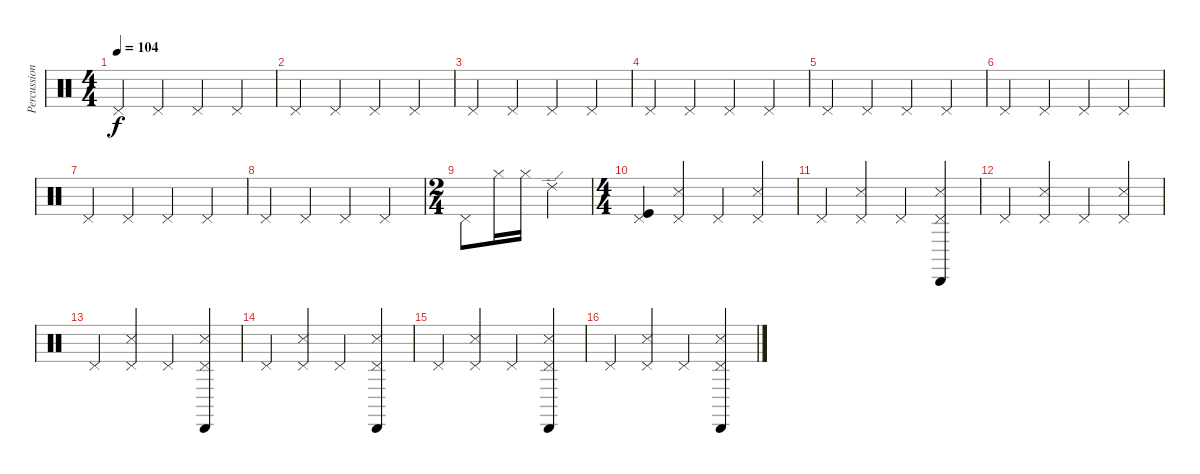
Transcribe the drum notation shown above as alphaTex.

\track ("Percussion" "Percussion") {instrument percussion}
\staff {score}
\articulation defaults
\ts (4 4)
\tempo 104
\clef neutral
\ks c "Pedal Hi-Hat (hit)".4{dy f} "Pedal Hi-Hat (hit)".4 "Pedal Hi-Hat (hit)".4 "Pedal Hi-Hat (hit)".4
|
"Pedal Hi-Hat (hit)".4 "Pedal Hi-Hat (hit)".4 "Pedal Hi-Hat (hit)".4 "Pedal Hi-Hat (hit)".4 |
"Pedal Hi-Hat (hit)".4 "Pedal Hi-Hat (hit)".4 "Pedal Hi-Hat (hit)".4 "Pedal Hi-Hat (hit)".4 |
"Pedal Hi-Hat (hit)".4 "Pedal Hi-Hat (hit)".4 "Pedal Hi-Hat (hit)".4 "Pedal Hi-Hat (hit)".4 |
"Pedal Hi-Hat (hit)".4 "Pedal Hi-Hat (hit)".4 "Pedal Hi-Hat (hit)".4 "Pedal Hi-Hat (hit)".4 |
"Pedal Hi-Hat (hit)".4 "Pedal Hi-Hat (hit)".4 "Pedal Hi-Hat (hit)".4 "Pedal Hi-Hat (hit)".4 |
"Pedal Hi-Hat (hit)".4 "Pedal Hi-Hat (hit)".4 "Pedal Hi-Hat (hit)".4 "Pedal Hi-Hat (hit)".4 |
"Pedal Hi-Hat (hit)".4 "Pedal Hi-Hat (hit)".4 "Pedal Hi-Hat (hit)".4 "Pedal Hi-Hat (hit)".4 |
\ts (2 4)
"Pedal Hi-Hat (hit)".8 "Hi-Hat (closed)".16 "Hi-Hat (closed)".16 "Ride (edge) 2".4 |
\ts (4 4)
("Pedal Hi-Hat (hit)" "Kick (hit)").4 ("Pedal Hi-Hat (hit)" "Snare (side stick) 3").4 "Pedal Hi-Hat (hit)".4 ("Pedal Hi-Hat (hit)" "Snare (side stick) 3").4 |
"Pedal Hi-Hat (hit)".4 ("Pedal Hi-Hat (hit)" "Snare (side stick) 3").4 "Pedal Hi-Hat (hit)".4 ("Pedal Hi-Hat (hit)" "Snare (side stick) 3" "Cabasa (hit)").4 |
"Pedal Hi-Hat (hit)".4 ("Pedal Hi-Hat (hit)" "Snare (side stick) 3").4 "Pedal Hi-Hat (hit)".4 ("Pedal Hi-Hat (hit)" "Snare (side stick) 3").4 |
"Pedal Hi-Hat (hit)".4 ("Pedal Hi-Hat (hit)" "Snare (side stick) 3").4 "Pedal Hi-Hat (hit)".4 ("Pedal Hi-Hat (hit)" "Snare (side stick) 3" "Cabasa (hit)").4 |
"Pedal Hi-Hat (hit)".4 ("Pedal Hi-Hat (hit)" "Snare (side stick) 3").4 "Pedal Hi-Hat (hit)".4 ("Pedal Hi-Hat (hit)" "Snare (side stick) 3" "Cabasa (hit)").4 |
"Pedal Hi-Hat (hit)".4 ("Pedal Hi-Hat (hit)" "Snare (side stick) 3").4 "Pedal Hi-Hat (hit)".4 ("Pedal Hi-Hat (hit)" "Snare (side stick) 3" "Cabasa (hit)").4 |
"Pedal Hi-Hat (hit)".4 ("Pedal Hi-Hat (hit)" "Snare (side stick) 3").4 "Pedal Hi-Hat (hit)".4 ("Pedal Hi-Hat (hit)" "Snare (side stick) 3" "Cabasa (hit)").4
